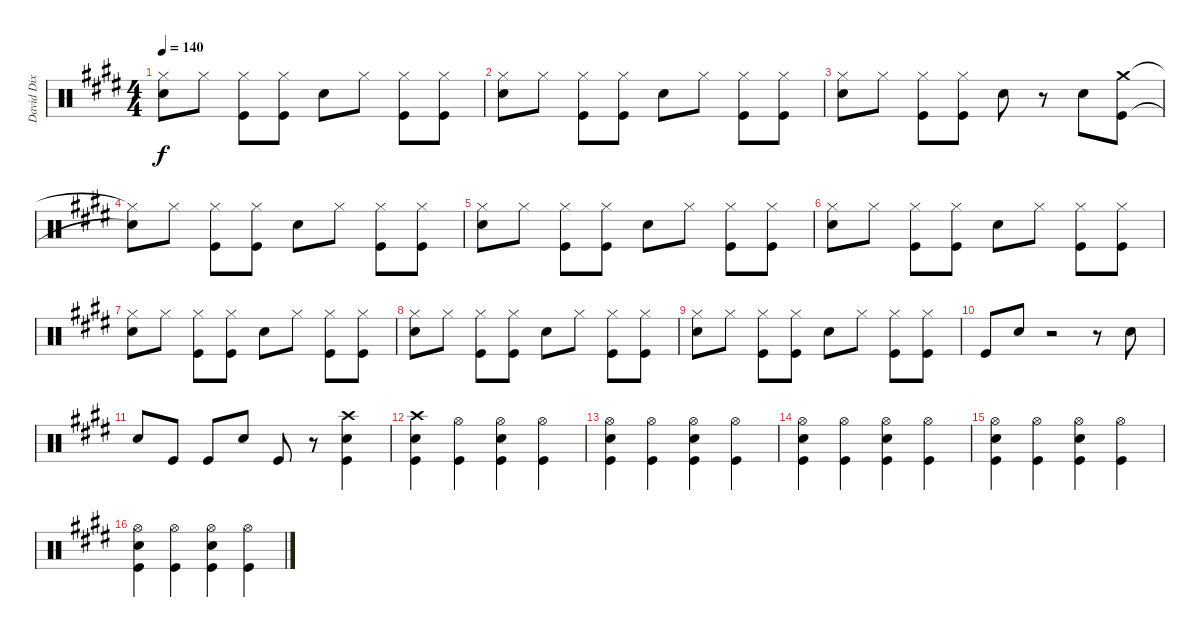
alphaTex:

\track ("David Dix Drums" "David Dix ") {instrument percussion}
\staff {score}
\articulation defaults
\ts (4 4)
\tempo 140
\clef neutral
\ks e
("Hi-Hat (closed)" "Snare (hit) 2").8{dy f} "Hi-Hat (closed)".8 ("Hi-Hat (closed)" "Kick (hit)").8 ("Hi-Hat (closed)" "Kick (hit)").8 "Snare (hit) 2".8 "Hi-Hat (closed)".8 ("Hi-Hat (closed)" "Kick (hit)").8 ("Hi-Hat (closed)" "Kick (hit)").8 |
("Hi-Hat (closed)" "Snare (hit) 2").8 "Hi-Hat (closed)".8 ("Hi-Hat (closed)" "Kick (hit)").8 ("Hi-Hat (closed)" "Kick (hit)").8 "Snare (hit) 2".8 "Hi-Hat (closed)".8 ("Hi-Hat (closed)" "Kick (hit)").8 ("Hi-Hat (closed)" "Kick (hit)").8 |
("Hi-Hat (closed)" "Snare (hit) 2").8 "Hi-Hat (closed)".8 ("Hi-Hat (closed)" "Kick (hit)").8 ("Hi-Hat (closed)" "Kick (hit)").8 "Snare (hit) 2".8 r.8 "Snare (hit) 2".8 ("Crash medium (hit)" "Kick (hit)").8 |
("Hi-Hat (closed)"{t} "Snare (hit)"{t}).8 "Hi-Hat (closed)".8 ("Hi-Hat (closed)" "Kick (hit)").8 ("Hi-Hat (closed)" "Kick (hit)").8 "Snare (hit) 2".8 "Hi-Hat (closed)".8 ("Hi-Hat (closed)" "Kick (hit)").8 ("Hi-Hat (closed)" "Kick (hit)").8 |
("Hi-Hat (closed)" "Snare (hit) 2").8 "Hi-Hat (closed)".8 ("Hi-Hat (closed)" "Kick (hit)").8 ("Hi-Hat (closed)" "Kick (hit)").8 "Snare (hit) 2".8 "Hi-Hat (closed)".8 ("Hi-Hat (closed)" "Kick (hit)").8 ("Hi-Hat (closed)" "Kick (hit)").8 |
("Hi-Hat (closed)" "Snare (hit) 2").8 "Hi-Hat (closed)".8 ("Hi-Hat (closed)" "Kick (hit)").8 ("Hi-Hat (closed)" "Kick (hit)").8 "Snare (hit) 2".8 "Hi-Hat (closed)".8 ("Hi-Hat (closed)" "Kick (hit)").8 ("Hi-Hat (closed)" "Kick (hit)").8 |
("Hi-Hat (closed)" "Snare (hit) 2").8 "Hi-Hat (closed)".8 ("Hi-Hat (closed)" "Kick (hit)").8 ("Hi-Hat (closed)" "Kick (hit)").8 "Snare (hit) 2".8 "Hi-Hat (closed)".8 ("Hi-Hat (closed)" "Kick (hit)").8 ("Hi-Hat (closed)" "Kick (hit)").8 |
("Hi-Hat (closed)" "Snare (hit) 2").8 "Hi-Hat (closed)".8 ("Hi-Hat (closed)" "Kick (hit)").8 ("Hi-Hat (closed)" "Kick (hit)").8 "Snare (hit) 2".8 "Hi-Hat (closed)".8 ("Hi-Hat (closed)" "Kick (hit)").8 ("Hi-Hat (closed)" "Kick (hit)").8 |
("Hi-Hat (closed)" "Snare (hit) 2").8 "Hi-Hat (closed)".8 ("Hi-Hat (closed)" "Kick (hit)").8 ("Hi-Hat (closed)" "Kick (hit)").8 "Snare (hit) 2".8 "Hi-Hat (closed)".8 ("Hi-Hat (closed)" "Kick (hit)").8 ("Hi-Hat (closed)" "Kick (hit)").8 |
"Kick (hit)".8 "Snare (hit) 2".8 r.2 r.8 "Snare (hit) 2".8 |
"Snare (hit) 2".8 "Kick (hit)".8 "Kick (hit)".8 "Snare (hit) 2".8 "Kick (hit)".8 r.8 ("Crash high (hit)" "Snare (hit) 2" "Kick (hit)").4 |
("Crash high (hit)" "Snare (hit) 2" "Kick (hit)").4 ("Hi-Hat (open)" "Kick (hit)").4 ("Hi-Hat (open)" "Snare (hit) 2" "Kick (hit)").4 ("Hi-Hat (open)" "Kick (hit)").4 |
("Hi-Hat (open)" "Snare (hit) 2" "Kick (hit)").4 ("Hi-Hat (open)" "Kick (hit)").4 ("Hi-Hat (open)" "Snare (hit) 2" "Kick (hit)").4 ("Hi-Hat (open)" "Kick (hit)").4 |
("Hi-Hat (open)" "Snare (hit) 2" "Kick (hit)").4 ("Hi-Hat (open)" "Kick (hit)").4 ("Hi-Hat (open)" "Snare (hit) 2" "Kick (hit)").4 ("Hi-Hat (open)" "Kick (hit)").4 |
("Hi-Hat (open)" "Snare (hit) 2" "Kick (hit)").4 ("Hi-Hat (open)" "Kick (hit)").4 ("Hi-Hat (open)" "Snare (hit) 2" "Kick (hit)").4 ("Hi-Hat (open)" "Kick (hit)").4 |
("Hi-Hat (open)" "Snare (hit) 2" "Kick (hit)").4 ("Hi-Hat (open)" "Kick (hit)").4 ("Hi-Hat (open)" "Snare (hit) 2" "Kick (hit)").4 ("Hi-Hat (open)" "Kick (hit)").4
